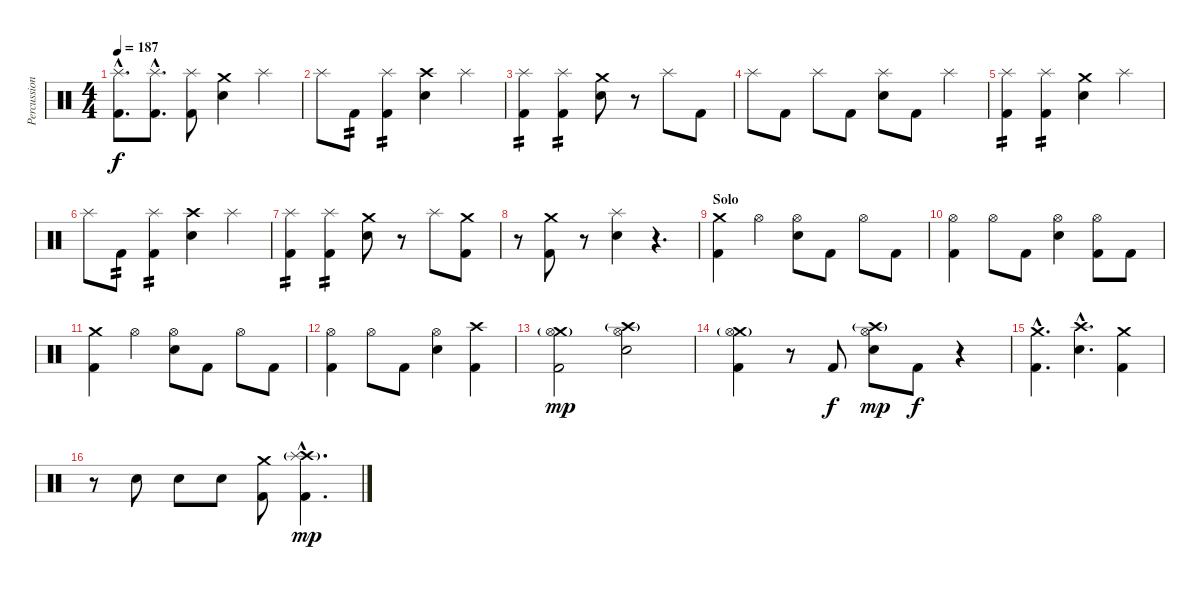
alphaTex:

\track ("Percussion" "Percussion") {instrument percussion}
\staff {score}
\articulation defaults
\ts (4 4)
\tempo 187
\clef neutral
\ks c
("Splash (hit)"{hac} "Kick (hit) 2"{hac}).8{d dy f} ("Splash (hit)"{hac} "Kick (hit) 2"{hac}).8{d} ("Splash (hit)" "Kick (hit) 2").8 ("Crash medium (hit)" "Electric Snare (hit)").4 "Splash (hit)".4 |
"Splash (hit)".8 "Kick (hit) 2".8{tp 2} ("Splash (hit)" "Kick (hit) 2").4{tp 2} ("Crash high (hit)" "Electric Snare (hit)").4 "Splash (hit)".4 |
("Splash (hit)" "Kick (hit) 2").4{tp 2} ("Splash (hit)" "Kick (hit) 2").4{tp 2} ("Crash medium (hit)" "Electric Snare (hit)").8 r.8 "Splash (hit)".8 "Kick (hit) 2".8 |
"Splash (hit)".8 "Kick (hit) 2".8 "Splash (hit)".8 "Kick (hit) 2".8 ("Splash (hit)" "Electric Snare (hit)").8 "Kick (hit) 2".8 "Splash (hit)".4 |
("Splash (hit)" "Kick (hit) 2").4{tp 2} ("Splash (hit)" "Kick (hit) 2").4{tp 2} ("Crash medium (hit)" "Electric Snare (hit)").4 "Splash (hit)".4 |
"Splash (hit)".8 "Kick (hit) 2".8{tp 2} ("Splash (hit)" "Kick (hit) 2").4{tp 2} ("Crash high (hit)" "Electric Snare (hit)").4 "Splash (hit)".4 |
("Splash (hit)" "Kick (hit) 2").4{tp 2} ("Splash (hit)" "Kick (hit) 2").4{tp 2} ("Crash medium (hit)" "Electric Snare (hit)").8 r.8 "Splash (hit)".8 ("Crash medium (hit)" "Kick (hit) 2").8 |
r.8 ("Crash medium (hit)" "Kick (hit) 2").8 r.8 ("Splash (hit)" "Electric Snare (hit)").4 r.4{d} |
\section ("" "Solo")
("Crash medium (hit)" "Kick (hit) 2").4 "Hi-Hat (open)".4 ("Hi-Hat (open)" "Electric Snare (hit)").8 "Kick (hit) 2".8 "Hi-Hat (open)".8 "Kick (hit) 2".8 |
("Hi-Hat (open)" "Kick (hit) 2").4 "Hi-Hat (open)".8 "Kick (hit) 2".8 ("Hi-Hat (open)" "Electric Snare (hit)").4 ("Hi-Hat (open)" "Kick (hit) 2").8 "Kick (hit) 2".8 |
("Crash medium (hit)" "Kick (hit) 2").4 "Hi-Hat (open)".4 ("Hi-Hat (open)" "Electric Snare (hit)").8 "Kick (hit) 2".8 "Hi-Hat (open)".8 "Kick (hit) 2".8 |
("Hi-Hat (open)" "Kick (hit) 2").4 "Hi-Hat (open)".8 "Kick (hit) 2".8 ("Hi-Hat (open)" "Electric Snare (hit)").4 ("Crash high (hit)" "Kick (hit) 2").4 |
("Crash medium (hit)"{g} "Hi-Hat (open)" "Kick (hit) 2").2{dy mp} ("Crash high (hit)"{g} "Hi-Hat (open)" "Electric Snare (hit)").2 |
("Crash medium (hit)"{g} "Hi-Hat (open)" "Kick (hit) 2").4 r.8 "Kick (hit) 2".8{dy f} ("Crash high (hit)"{g} "Hi-Hat (open)" "Electric Snare (hit)").8{dy mp} "Kick (hit) 2".8{dy f} r.4 |
("Crash medium (hit)"{hac} "Kick (hit) 2"{hac}).4{d} ("Crash high (hit)"{hac} "Electric Snare (hit)"{hac}).4{d} ("Crash medium (hit)" "Kick (hit) 2").4 |
r.8 "Electric Snare (hit)".8 "Electric Snare (hit)".8 "Electric Snare (hit)".8 ("Crash medium (hit)" "Kick (hit) 2").8 ("Crash high (hit)"{g hac} "Splash (hit)"{hac} "Kick (hit) 2"{hac}).4{d dy mp}
